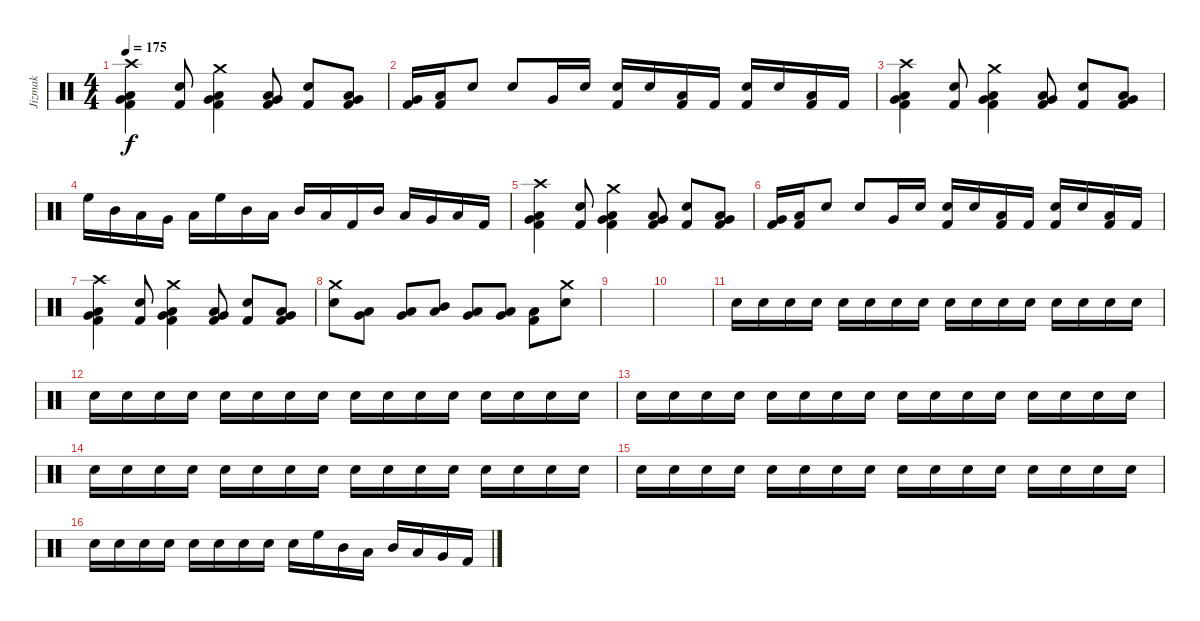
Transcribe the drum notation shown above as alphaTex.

\track ("Jizmak" "Jizmak") {instrument percussion}
\staff {score}
\articulation defaults
\ts (4 4)
\tempo 175
\clef neutral
\ks c
("Crash high (hit)" "Very Low Tom (hit)" "Low Floor Tom (hit)" "Kick (hit) 2").4{dy f} ("Snare (hit) 2" "Kick (hit) 2").8 ("Crash medium (hit)" "Very Low Tom (hit)" "Low Floor Tom (hit)" "Kick (hit) 2").4 ("Very Low Tom (hit)" "Low Floor Tom (hit)" "Kick (hit) 2").8 ("Snare (hit) 2" "Kick (hit) 2").8 ("Very Low Tom (hit)" "Low Floor Tom (hit)" "Kick (hit) 2").8 |
("Very Low Tom (hit)" "Kick (hit) 2").16 ("Low Floor Tom (hit)" "Kick (hit) 2").16 "Snare (hit) 2".8 "Snare (hit) 2".8 "Very Low Tom (hit)".16 "Snare (hit) 2".16 ("Snare (hit) 2" "Kick (hit) 2").16 "Snare (hit) 2".16 ("Low Floor Tom (hit)" "Kick (hit) 2").16 "Kick (hit) 2".16 ("Snare (hit) 2" "Kick (hit) 2").16 "Snare (hit) 2".16 ("Low Floor Tom (hit)" "Kick (hit) 2").16 "Kick (hit) 2".16 |
("Crash high (hit)" "Very Low Tom (hit)" "Low Floor Tom (hit)" "Kick (hit) 2").4 ("Snare (hit) 2" "Kick (hit) 2").8 ("Crash medium (hit)" "Very Low Tom (hit)" "Low Floor Tom (hit)" "Kick (hit) 2").4 ("Very Low Tom (hit)" "Low Floor Tom (hit)" "Kick (hit) 2").8 ("Snare (hit) 2" "Kick (hit) 2").8 ("Very Low Tom (hit)" "Low Floor Tom (hit)" "Kick (hit) 2").8 |
"High Floor Tom (hit)".16 "Mid Tom (hit)".16 "Low Tom (hit)".16 "Very Low Tom (hit)".16 "Low Floor Tom (hit)".16 "High Floor Tom (hit)".16 "Mid Tom (hit)".16 "Low Tom (hit)".16 "Mid Tom (hit)".16 "Low Tom (hit)".16 "Kick (hit) 2".16 "Mid Tom (hit)".16 "Low Tom (hit)".16 "Very Low Tom (hit)".16 "Low Floor Tom (hit)".16 "Kick (hit) 2".16 |
("Crash high (hit)" "Very Low Tom (hit)" "Low Floor Tom (hit)" "Kick (hit) 2").4 ("Snare (hit) 2" "Kick (hit) 2").8 ("Crash medium (hit)" "Very Low Tom (hit)" "Low Floor Tom (hit)" "Kick (hit) 2").4 ("Very Low Tom (hit)" "Low Floor Tom (hit)" "Kick (hit) 2").8 ("Snare (hit) 2" "Kick (hit) 2").8 ("Very Low Tom (hit)" "Low Floor Tom (hit)" "Kick (hit) 2").8 |
("Very Low Tom (hit)" "Kick (hit) 2").16 ("Low Floor Tom (hit)" "Kick (hit) 2").16 "Snare (hit) 2".8 "Snare (hit) 2".8 "Very Low Tom (hit)".16 "Snare (hit) 2".16 ("Snare (hit) 2" "Kick (hit) 2").16 "Snare (hit) 2".16 ("Low Floor Tom (hit)" "Kick (hit) 2").16 "Kick (hit) 2".16 ("Snare (hit) 2" "Kick (hit) 2").16 "Snare (hit) 2".16 ("Low Floor Tom (hit)" "Kick (hit) 2").16 "Kick (hit) 2".16 |
("Crash high (hit)" "Very Low Tom (hit)" "Low Floor Tom (hit)" "Kick (hit) 2").4 ("Snare (hit) 2" "Kick (hit) 2").8 ("Crash medium (hit)" "Very Low Tom (hit)" "Low Floor Tom (hit)" "Kick (hit) 2").4 ("Very Low Tom (hit)" "Low Floor Tom (hit)" "Kick (hit) 2").8 ("Snare (hit) 2" "Kick (hit) 2").8 ("Very Low Tom (hit)" "Low Floor Tom (hit)" "Kick (hit) 2").8 |
("Crash medium (hit)" "Snare (hit) 2").8 ("Low Tom (hit)" "Very Low Tom (hit)").8 ("Very Low Tom (hit)" "Low Floor Tom (hit)").8 ("Mid Tom (hit)" "Low Tom (hit)").8 ("Low Tom (hit)" "Very Low Tom (hit)").8 ("Very Low Tom (hit)" "Low Floor Tom (hit)").8 ("Low Floor Tom (hit)" "Kick (hit) 2").8 ("Crash medium (hit)" "Snare (hit) 2").8 |
|
|
"Snare (hit) 2".16{volume 5} "Snare (hit) 2".16 "Snare (hit) 2".16 "Snare (hit) 2".16 "Snare (hit) 2".16 "Snare (hit) 2".16 "Snare (hit) 2".16 "Snare (hit) 2".16 "Snare (hit) 2".16 "Snare (hit) 2".16 "Snare (hit) 2".16 "Snare (hit) 2".16 "Snare (hit) 2".16 "Snare (hit) 2".16 "Snare (hit) 2".16 "Snare (hit) 2".16 |
"Snare (hit) 2".16 "Snare (hit) 2".16 "Snare (hit) 2".16 "Snare (hit) 2".16 "Snare (hit) 2".16 "Snare (hit) 2".16 "Snare (hit) 2".16 "Snare (hit) 2".16 "Snare (hit) 2".16 "Snare (hit) 2".16 "Snare (hit) 2".16 "Snare (hit) 2".16 "Snare (hit) 2".16 "Snare (hit) 2".16 "Snare (hit) 2".16 "Snare (hit) 2".16 |
"Snare (hit) 2".16 "Snare (hit) 2".16 "Snare (hit) 2".16 "Snare (hit) 2".16 "Snare (hit) 2".16 "Snare (hit) 2".16 "Snare (hit) 2".16 "Snare (hit) 2".16 "Snare (hit) 2".16 "Snare (hit) 2".16 "Snare (hit) 2".16 "Snare (hit) 2".16 "Snare (hit) 2".16 "Snare (hit) 2".16 "Snare (hit) 2".16 "Snare (hit) 2".16 |
"Snare (hit) 2".16 "Snare (hit) 2".16 "Snare (hit) 2".16 "Snare (hit) 2".16 "Snare (hit) 2".16 "Snare (hit) 2".16 "Snare (hit) 2".16 "Snare (hit) 2".16 "Snare (hit) 2".16 "Snare (hit) 2".16 "Snare (hit) 2".16 "Snare (hit) 2".16 "Snare (hit) 2".16 "Snare (hit) 2".16 "Snare (hit) 2".16 "Snare (hit) 2".16 |
"Snare (hit) 2".16 "Snare (hit) 2".16 "Snare (hit) 2".16 "Snare (hit) 2".16 "Snare (hit) 2".16 "Snare (hit) 2".16 "Snare (hit) 2".16 "Snare (hit) 2".16 "Snare (hit) 2".16 "Snare (hit) 2".16 "Snare (hit) 2".16 "Snare (hit) 2".16 "Snare (hit) 2".16 "Snare (hit) 2".16 "Snare (hit) 2".16 "Snare (hit) 2".16 |
"Snare (hit) 2".16 "Snare (hit) 2".16 "Snare (hit) 2".16 "Snare (hit) 2".16 "Snare (hit) 2".16 "Snare (hit) 2".16 "Snare (hit) 2".16 "Snare (hit) 2".16 "Snare (hit) 2".16 "High Floor Tom (hit)".16{volume 16} "Mid Tom (hit)".16 "Low Tom (hit)".16 "Mid Tom (hit)".16 "Low Tom (hit)".16 "Very Low Tom (hit)".16 "Kick (hit) 2".16
